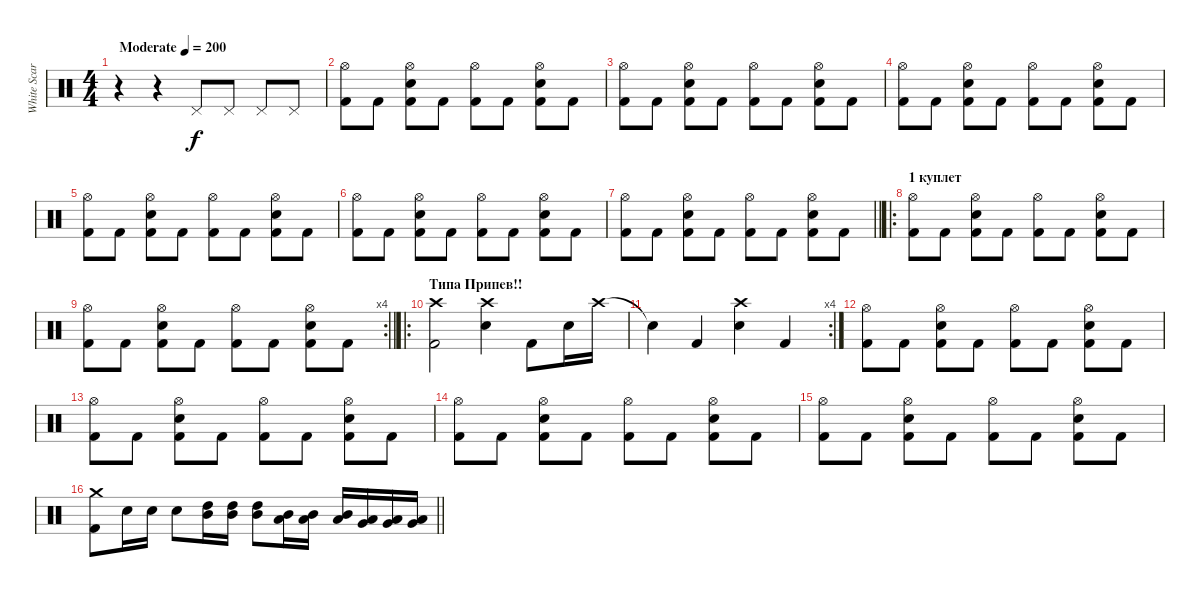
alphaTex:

\track ("White Scar" "White Scar") {instrument percussion}
\staff {score}
\articulation defaults
\ts (4 4)
\tempo (200 "Moderate")
\clef neutral
\ks c
r.4{dy f} r.4 "Pedal Hi-Hat (hit)".8 "Pedal Hi-Hat (hit)".8 "Pedal Hi-Hat (hit)".8 "Pedal Hi-Hat (hit)".8 |
("Hi-Hat (open)" "Kick (hit) 2").8 "Kick (hit) 2".8 ("Snare (hit) 2" "Hi-Hat (open)" "Kick (hit) 2").8 "Kick (hit) 2".8 ("Hi-Hat (open)" "Kick (hit) 2").8 "Kick (hit) 2".8 ("Snare (hit) 2" "Hi-Hat (open)" "Kick (hit) 2").8 "Kick (hit) 2".8 |
("Hi-Hat (open)" "Kick (hit) 2").8 "Kick (hit) 2".8 ("Snare (hit) 2" "Hi-Hat (open)" "Kick (hit) 2").8 "Kick (hit) 2".8 ("Hi-Hat (open)" "Kick (hit) 2").8 "Kick (hit) 2".8 ("Snare (hit) 2" "Hi-Hat (open)" "Kick (hit) 2").8 "Kick (hit) 2".8 |
("Hi-Hat (open)" "Kick (hit) 2").8 "Kick (hit) 2".8 ("Snare (hit) 2" "Hi-Hat (open)" "Kick (hit) 2").8 "Kick (hit) 2".8 ("Hi-Hat (open)" "Kick (hit) 2").8 "Kick (hit) 2".8 ("Snare (hit) 2" "Hi-Hat (open)" "Kick (hit) 2").8 "Kick (hit) 2".8 |
("Hi-Hat (open)" "Kick (hit) 2").8 "Kick (hit) 2".8 ("Snare (hit) 2" "Hi-Hat (open)" "Kick (hit) 2").8 "Kick (hit) 2".8 ("Hi-Hat (open)" "Kick (hit) 2").8 "Kick (hit) 2".8 ("Snare (hit) 2" "Hi-Hat (open)" "Kick (hit) 2").8 "Kick (hit) 2".8 |
("Hi-Hat (open)" "Kick (hit) 2").8 "Kick (hit) 2".8 ("Snare (hit) 2" "Hi-Hat (open)" "Kick (hit) 2").8 "Kick (hit) 2".8 ("Hi-Hat (open)" "Kick (hit) 2").8 "Kick (hit) 2".8 ("Snare (hit) 2" "Hi-Hat (open)" "Kick (hit) 2").8 "Kick (hit) 2".8 |
\barLineRight lightlight
("Hi-Hat (open)" "Kick (hit) 2").8 "Kick (hit) 2".8 ("Snare (hit) 2" "Hi-Hat (open)" "Kick (hit) 2").8 "Kick (hit) 2".8 ("Hi-Hat (open)" "Kick (hit) 2").8 "Kick (hit) 2".8 ("Snare (hit) 2" "Hi-Hat (open)" "Kick (hit) 2").8 "Kick (hit) 2".8 |
\ro
\section ("" "1 куплет")
("Hi-Hat (open)" "Kick (hit) 2").8 "Kick (hit) 2".8 ("Snare (hit) 2" "Hi-Hat (open)" "Kick (hit) 2").8 "Kick (hit) 2".8 ("Hi-Hat (open)" "Kick (hit) 2").8 "Kick (hit) 2".8 ("Snare (hit) 2" "Hi-Hat (open)" "Kick (hit) 2").8 "Kick (hit) 2".8 |
\rc 4
\barLineRight lightlight
("Hi-Hat (open)" "Kick (hit) 2").8 "Kick (hit) 2".8 ("Snare (hit) 2" "Hi-Hat (open)" "Kick (hit) 2").8 "Kick (hit) 2".8 ("Hi-Hat (open)" "Kick (hit) 2").8 "Kick (hit) 2".8 ("Snare (hit) 2" "Hi-Hat (open)" "Kick (hit) 2").8 "Kick (hit) 2".8 |
\ro
\section ("" "Типа Припев!! ")
("Crash high (hit)" "Kick (hit) 2").2 ("Crash high (hit)" "Snare (hit) 2").4 "Kick (hit) 2".8 "Snare (hit) 2".16 "Crash high (hit)".16 |
\rc 4 "Snare (hit)"{t}.4 "Kick (hit) 2".4
("Crash high (hit)" "Snare (hit) 2").4 "Kick (hit) 2".4 |
("Hi-Hat (open)" "Kick (hit) 2").8 "Kick (hit) 2".8 ("Snare (hit) 2" "Hi-Hat (open)" "Kick (hit) 2").8 "Kick (hit) 2".8 ("Hi-Hat (open)" "Kick (hit) 2").8 "Kick (hit) 2".8 ("Snare (hit) 2" "Hi-Hat (open)" "Kick (hit) 2").8 "Kick (hit) 2".8 |
("Hi-Hat (open)" "Kick (hit) 2").8 "Kick (hit) 2".8 ("Snare (hit) 2" "Hi-Hat (open)" "Kick (hit) 2").8 "Kick (hit) 2".8 ("Hi-Hat (open)" "Kick (hit) 2").8 "Kick (hit) 2".8 ("Snare (hit) 2" "Hi-Hat (open)" "Kick (hit) 2").8 "Kick (hit) 2".8 |
("Hi-Hat (open)" "Kick (hit) 2").8 "Kick (hit) 2".8 ("Snare (hit) 2" "Hi-Hat (open)" "Kick (hit) 2").8 "Kick (hit) 2".8 ("Hi-Hat (open)" "Kick (hit) 2").8 "Kick (hit) 2".8 ("Snare (hit) 2" "Hi-Hat (open)" "Kick (hit) 2").8 "Kick (hit) 2".8 |
("Hi-Hat (open)" "Kick (hit) 2").8 "Kick (hit) 2".8 ("Snare (hit) 2" "Hi-Hat (open)" "Kick (hit) 2").8 "Kick (hit) 2".8 ("Hi-Hat (open)" "Kick (hit) 2").8 "Kick (hit) 2".8 ("Snare (hit) 2" "Hi-Hat (open)" "Kick (hit) 2").8 "Kick (hit) 2".8 |
\barLineRight lightlight
("Crash medium (hit)" "Kick (hit) 2").8 "Snare (hit) 2".16 "Snare (hit) 2".16 "Snare (hit) 2".8 ("Mid Tom (hit)" "High Tom (hit)").16 ("Mid Tom (hit)" "High Tom (hit)").16 ("Mid Tom (hit)" "High Tom (hit)").8 ("Low Tom (hit)" "Mid Tom (hit)").16 ("Low Tom (hit)" "Mid Tom (hit)").16 ("Low Tom (hit)" "Mid Tom (hit)").16 ("Very Low Tom (hit)" "Low Tom (hit)").16 ("Very Low Tom (hit)" "Low Tom (hit)").16 ("Very Low Tom (hit)" "Low Tom (hit)").16
